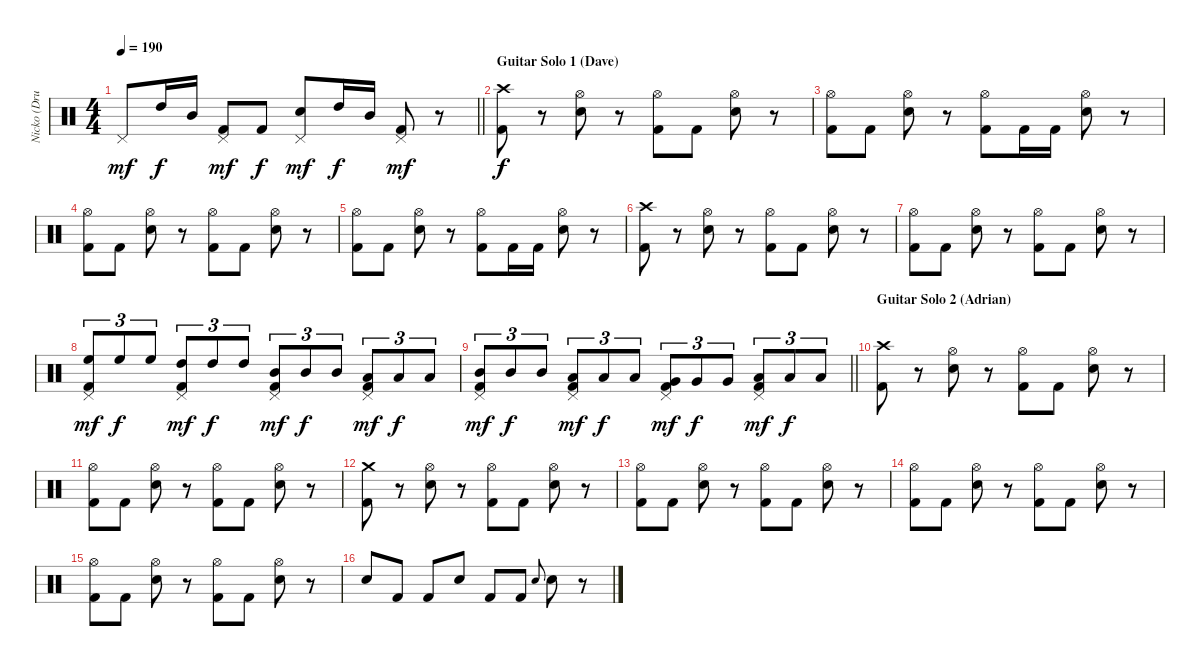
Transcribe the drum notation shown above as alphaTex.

\track ("Nicko (Drums)" "Nicko (Dru") {instrument percussion}
\staff {score}
\articulation defaults
\ts (4 4)
\tempo 190
\clef neutral
\barLineRight lightlight
\ks c "Pedal Hi-Hat (hit)".8{dy mf} "High Tom (hit)".16{dy f} "Mid Tom (hit)".16
("Pedal Hi-Hat (hit)" "Kick (hit) 2").8{dy mf} "Kick (hit) 2".8{dy f} ("Pedal Hi-Hat (hit)" "Snare (hit) 2").8{dy mf} "High Tom (hit)".16{dy f} "Mid Tom (hit)".16 ("Pedal Hi-Hat (hit)" "Kick (hit) 2").8{dy mf} r.8 |
\section ("" "Guitar Solo 1 (Dave)")
("Crash high (hit)" "Kick (hit) 2").8{dy f} r.8 ("Hi-Hat (open)" "Snare (hit) 2").8 r.8 ("Hi-Hat (open)" "Kick (hit) 2").8 "Kick (hit) 2".8 ("Hi-Hat (open)" "Snare (hit) 2").8 r.8 |
("Hi-Hat (open)" "Kick (hit) 2").8 "Kick (hit) 2".8 ("Hi-Hat (open)" "Snare (hit) 2").8 r.8 ("Hi-Hat (open)" "Kick (hit) 2").8 "Kick (hit) 2".16 "Kick (hit) 2".16 ("Hi-Hat (open)" "Snare (hit) 2").8 r.8 |
("Hi-Hat (open)" "Kick (hit) 2").8 "Kick (hit) 2".8 ("Hi-Hat (open)" "Snare (hit) 2").8 r.8 ("Hi-Hat (open)" "Kick (hit) 2").8 "Kick (hit) 2".8 ("Hi-Hat (open)" "Snare (hit) 2").8 r.8 |
("Hi-Hat (open)" "Kick (hit) 2").8 "Kick (hit) 2".8 ("Hi-Hat (open)" "Snare (hit) 2").8 r.8 ("Hi-Hat (open)" "Kick (hit) 2").8 "Kick (hit) 2".16 "Kick (hit) 2".16 ("Hi-Hat (open)" "Snare (hit) 2").8 r.8 |
("Crash high (hit)" "Kick (hit) 2").8 r.8 ("Hi-Hat (open)" "Snare (hit) 2").8 r.8 ("Hi-Hat (open)" "Kick (hit) 2").8 "Kick (hit) 2".8 ("Hi-Hat (open)" "Snare (hit) 2").8 r.8 |
("Hi-Hat (open)" "Kick (hit) 2").8 "Kick (hit) 2".8 ("Hi-Hat (open)" "Snare (hit) 2").8 r.8 ("Hi-Hat (open)" "Kick (hit) 2").8 "Kick (hit) 2".8 ("Hi-Hat (open)" "Snare (hit) 2").8 r.8 |
("Pedal Hi-Hat (hit)" "High Floor Tom (hit)" "Kick (hit) 2").8{tu (3 2) dy mf} "High Floor Tom (hit)".8{tu (3 2) dy f} "High Floor Tom (hit)".8{tu (3 2)} ("Pedal Hi-Hat (hit)" "High Tom (hit)" "Kick (hit) 2").8{tu (3 2) dy mf} "High Tom (hit)".8{tu (3 2) dy f} "High Tom (hit)".8{tu (3 2)} ("Pedal Hi-Hat (hit)" "Mid Tom (hit)" "Kick (hit) 2").8{tu (3 2) dy mf} "Mid Tom (hit)".8{tu (3 2) dy f} "Mid Tom (hit)".8{tu (3 2)} ("Pedal Hi-Hat (hit)" "Low Tom (hit)" "Kick (hit) 2").8{tu (3 2) dy mf} "Low Tom (hit)".8{tu (3 2) dy f} "Low Tom (hit)".8{tu (3 2)} |
\barLineRight lightlight
("Pedal Hi-Hat (hit)" "Mid Tom (hit)" "Kick (hit) 2").8{tu (3 2) dy mf} "Mid Tom (hit)".8{tu (3 2) dy f} "Mid Tom (hit)".8{tu (3 2)} ("Pedal Hi-Hat (hit)" "Low Tom (hit)" "Kick (hit) 2").8{tu (3 2) dy mf} "Low Tom (hit)".8{tu (3 2) dy f} "Low Tom (hit)".8{tu (3 2)} ("Pedal Hi-Hat (hit)" "Very Low Tom (hit)" "Kick (hit) 2").8{tu (3 2) dy mf} "Very Low Tom (hit)".8{tu (3 2) dy f} "Very Low Tom (hit)".8{tu (3 2)} ("Pedal Hi-Hat (hit)" "Low Floor Tom (hit)" "Kick (hit) 2").8{tu (3 2) dy mf} "Low Floor Tom (hit)".8{tu (3 2) dy f} "Low Floor Tom (hit)".8{tu (3 2)} |
\section ("" "Guitar Solo 2 (Adrian)")
("Crash high (hit)" "Kick (hit) 2").8 r.8 ("Hi-Hat (open)" "Snare (hit) 2").8 r.8 ("Hi-Hat (open)" "Kick (hit) 2").8 "Kick (hit) 2".8 ("Hi-Hat (open)" "Snare (hit) 2").8 r.8 |
("Hi-Hat (open)" "Kick (hit) 2").8 "Kick (hit) 2".8 ("Hi-Hat (open)" "Snare (hit) 2").8 r.8 ("Hi-Hat (open)" "Kick (hit) 2").8 "Kick (hit) 2".8 ("Hi-Hat (open)" "Snare (hit) 2").8 r.8 |
("Crash medium (hit)" "Kick (hit) 2").8 r.8 ("Hi-Hat (open)" "Snare (hit) 2").8 r.8 ("Hi-Hat (open)" "Kick (hit) 2").8 "Kick (hit) 2".8 ("Hi-Hat (open)" "Snare (hit) 2").8 r.8 |
("Hi-Hat (open)" "Kick (hit) 2").8 "Kick (hit) 2".8 ("Hi-Hat (open)" "Snare (hit) 2").8 r.8 ("Hi-Hat (open)" "Kick (hit) 2").8 "Kick (hit) 2".8 ("Hi-Hat (open)" "Snare (hit) 2").8 r.8 |
("Hi-Hat (open)" "Kick (hit) 2").8 "Kick (hit) 2".8 ("Hi-Hat (open)" "Snare (hit) 2").8 r.8 ("Hi-Hat (open)" "Kick (hit) 2").8 "Kick (hit) 2".8 ("Hi-Hat (open)" "Snare (hit) 2").8 r.8 |
("Hi-Hat (open)" "Kick (hit) 2").8 "Kick (hit) 2".8 ("Hi-Hat (open)" "Snare (hit) 2").8 r.8 ("Hi-Hat (open)" "Kick (hit) 2").8 "Kick (hit) 2".8 ("Hi-Hat (open)" "Snare (hit) 2").8 r.8 |
"Snare (hit) 2".8 "Kick (hit) 2".8 "Kick (hit) 2".8 "Snare (hit) 2".8 "Kick (hit) 2".8 "Kick (hit) 2".8 "Snare (hit) 2".8{gr onbeat} "Snare (hit) 2".8 r.8
